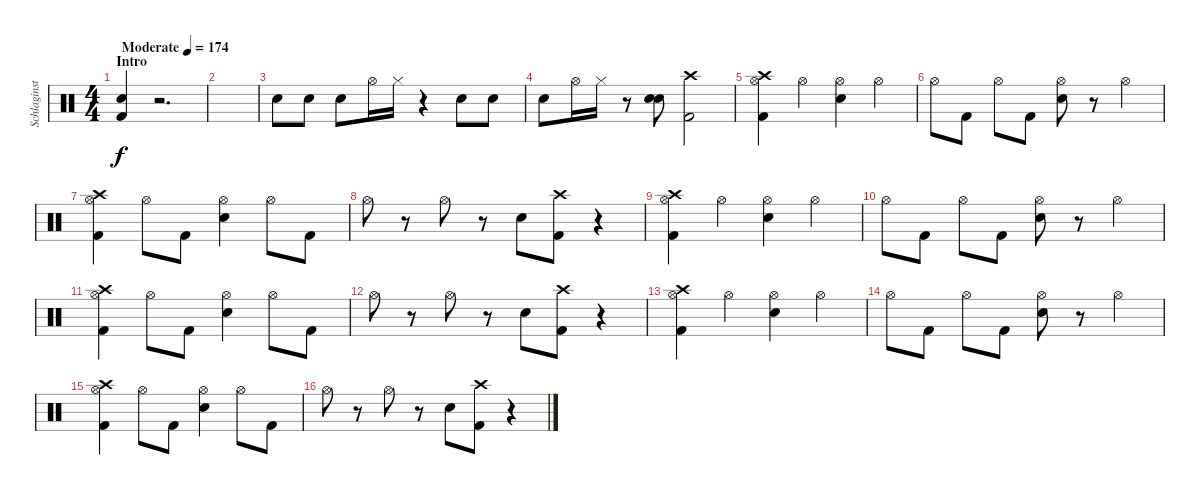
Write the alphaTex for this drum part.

\track ("Schlaginstrumente - Auswahl" "Schlaginst") {instrument percussion}
\staff {score}
\articulation defaults
\ts (4 4)
\section ("" "Intro")
\tempo (174 "Moderate")
\clef neutral
\ks c
("Snare (hit) 2" "Kick (hit) 2").4{dy f} r.2{d} |
|
"Snare (hit) 2".8 "Snare (hit) 2".8 "Snare (hit) 2".8 "Hi-Hat (open)".16 "Hi-Hat (closed)".16 r.4 "Snare (hit) 2".8 "Snare (hit) 2".8 |
"Snare (hit) 2".8 "Hi-Hat (open)".16 "Hi-Hat (closed)".16 r.8 ("Snare (hit) 2" "Snare (hit) 2").8{bd 240} ("Crash high (hit)" "Kick (hit) 2").2 |
("Crash high (hit)" "Hi-Hat (open)" "Kick (hit) 2").4 "Hi-Hat (open)".4 ("Hi-Hat (open)" "Snare (hit) 2").4 "Hi-Hat (open)".4 |
"Hi-Hat (open)".8 "Kick (hit) 2".8 "Hi-Hat (open)".8 "Kick (hit) 2".8 ("Hi-Hat (open)" "Snare (hit) 2").8 r.8 "Hi-Hat (open)".4 |
("Crash high (hit)" "Hi-Hat (open)" "Kick (hit) 2").4 "Hi-Hat (open)".8 "Kick (hit) 2".8 ("Hi-Hat (open)" "Snare (hit) 2").4 "Hi-Hat (open)".8 "Kick (hit) 2".8 |
"Hi-Hat (open)".8 r.8 "Hi-Hat (open)".8 r.8 "Snare (hit) 2".8 ("Crash high (hit)" "Kick (hit) 2").8 r.4 |
("Crash high (hit)" "Hi-Hat (open)" "Kick (hit) 2").4 "Hi-Hat (open)".4 ("Hi-Hat (open)" "Snare (hit) 2").4 "Hi-Hat (open)".4 |
"Hi-Hat (open)".8 "Kick (hit) 2".8 "Hi-Hat (open)".8 "Kick (hit) 2".8 ("Hi-Hat (open)" "Snare (hit) 2").8 r.8 "Hi-Hat (open)".4 |
("Crash high (hit)" "Hi-Hat (open)" "Kick (hit) 2").4 "Hi-Hat (open)".8 "Kick (hit) 2".8 ("Hi-Hat (open)" "Snare (hit) 2").4 "Hi-Hat (open)".8 "Kick (hit) 2".8 |
"Hi-Hat (open)".8 r.8 "Hi-Hat (open)".8 r.8 "Snare (hit) 2".8 ("Crash high (hit)" "Kick (hit) 2").8 r.4 |
("Crash high (hit)" "Hi-Hat (open)" "Kick (hit) 2").4 "Hi-Hat (open)".4 ("Hi-Hat (open)" "Snare (hit) 2").4 "Hi-Hat (open)".4 |
"Hi-Hat (open)".8 "Kick (hit) 2".8 "Hi-Hat (open)".8 "Kick (hit) 2".8 ("Hi-Hat (open)" "Snare (hit) 2").8 r.8 "Hi-Hat (open)".4 |
("Crash high (hit)" "Hi-Hat (open)" "Kick (hit) 2").4 "Hi-Hat (open)".8 "Kick (hit) 2".8 ("Hi-Hat (open)" "Snare (hit) 2").4 "Hi-Hat (open)".8 "Kick (hit) 2".8 |
"Hi-Hat (open)".8 r.8 "Hi-Hat (open)".8 r.8 "Snare (hit) 2".8 ("Crash high (hit)" "Kick (hit) 2").8 r.4
